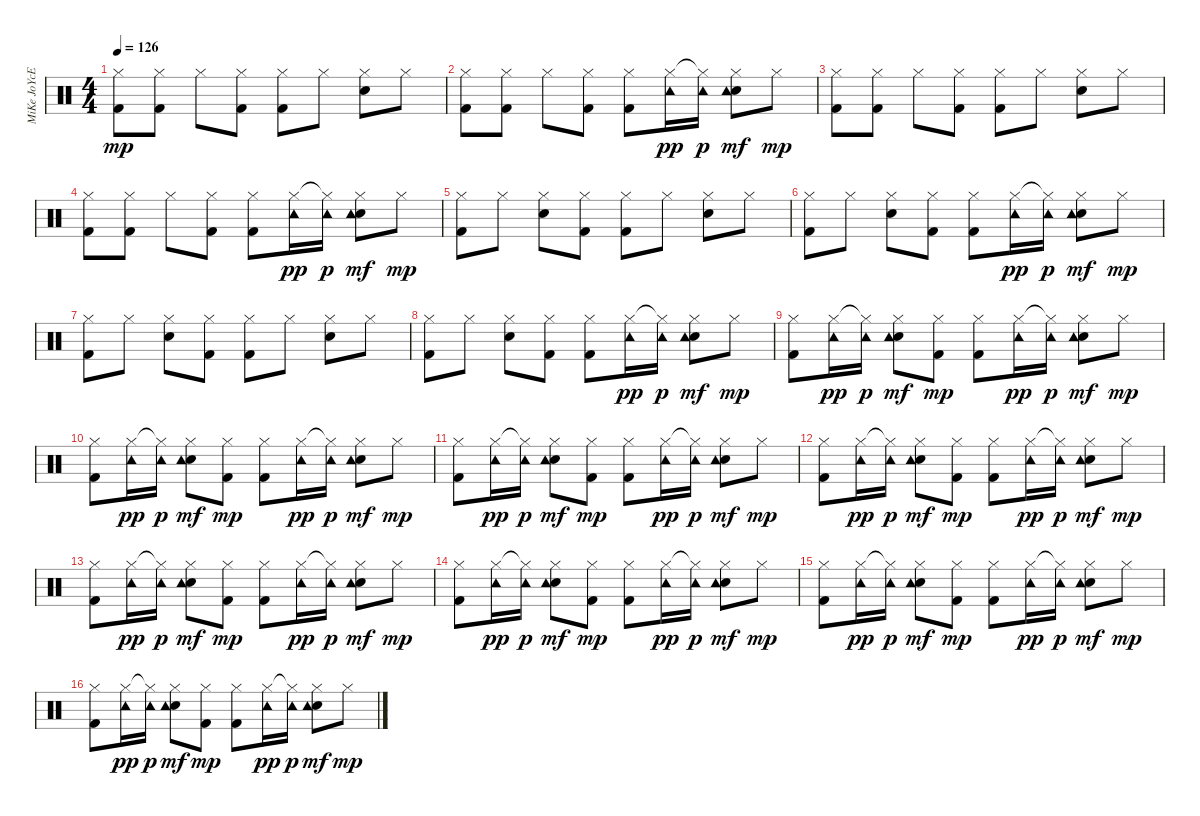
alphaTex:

\track ("MiKe JoYcE" "MiKe JoYcE") {instrument percussion}
\staff {score}
\articulation defaults
\ts (4 4)
\tempo 126
\clef neutral
\ks c
("Hi-Hat (closed)" "Kick (hit) 2").8{dy mp} ("Hi-Hat (closed)" "Kick (hit) 2").8 "Hi-Hat (closed)".8 ("Hi-Hat (closed)" "Kick (hit) 2").8 ("Hi-Hat (closed)" "Kick (hit) 2").8 "Hi-Hat (closed)".8 ("Hi-Hat (closed)" "Electric Snare (hit)").8 "Hi-Hat (closed)".8 |
("Hi-Hat (closed)" "Kick (hit) 2").8 ("Hi-Hat (closed)" "Kick (hit) 2").8 "Hi-Hat (closed)".8 ("Hi-Hat (closed)" "Kick (hit) 2").8 ("Hi-Hat (closed)" "Kick (hit) 2").8 ("Hi-Hat (closed)" "Tambourine (hit)").16{dy pp} ("Hi-Hat (closed)"{t} "Tambourine (hit)").16{dy p} ("Hi-Hat (closed)" "Electric Snare (hit)" "Tambourine (hit)").8{dy mf} "Hi-Hat (closed)".8{dy mp} |
("Hi-Hat (closed)" "Kick (hit) 2").8 ("Hi-Hat (closed)" "Kick (hit) 2").8 "Hi-Hat (closed)".8 ("Hi-Hat (closed)" "Kick (hit) 2").8 ("Hi-Hat (closed)" "Kick (hit) 2").8 "Hi-Hat (closed)".8 ("Hi-Hat (closed)" "Electric Snare (hit)").8 "Hi-Hat (closed)".8 |
("Hi-Hat (closed)" "Kick (hit) 2").8 ("Hi-Hat (closed)" "Kick (hit) 2").8 "Hi-Hat (closed)".8 ("Hi-Hat (closed)" "Kick (hit) 2").8 ("Hi-Hat (closed)" "Kick (hit) 2").8 ("Hi-Hat (closed)" "Tambourine (hit)").16{dy pp} ("Hi-Hat (closed)"{t} "Tambourine (hit)").16{dy p} ("Hi-Hat (closed)" "Electric Snare (hit)" "Tambourine (hit)").8{dy mf} "Hi-Hat (closed)".8{dy mp} |
("Hi-Hat (closed)" "Kick (hit) 2").8 "Hi-Hat (closed)".8 ("Hi-Hat (closed)" "Electric Snare (hit)").8 ("Hi-Hat (closed)" "Kick (hit) 2").8 ("Hi-Hat (closed)" "Kick (hit) 2").8 "Hi-Hat (closed)".8 ("Hi-Hat (closed)" "Electric Snare (hit)").8 "Hi-Hat (closed)".8 |
("Hi-Hat (closed)" "Kick (hit) 2").8 "Hi-Hat (closed)".8 ("Hi-Hat (closed)" "Electric Snare (hit)").8 ("Hi-Hat (closed)" "Kick (hit) 2").8 ("Hi-Hat (closed)" "Kick (hit) 2").8 ("Hi-Hat (closed)" "Tambourine (hit)").16{dy pp} ("Hi-Hat (closed)"{t} "Tambourine (hit)").16{dy p} ("Hi-Hat (closed)" "Electric Snare (hit)" "Tambourine (hit)").8{dy mf} "Hi-Hat (closed)".8{dy mp} |
("Hi-Hat (closed)" "Kick (hit) 2").8 "Hi-Hat (closed)".8 ("Hi-Hat (closed)" "Electric Snare (hit)").8 ("Hi-Hat (closed)" "Kick (hit) 2").8 ("Hi-Hat (closed)" "Kick (hit) 2").8 "Hi-Hat (closed)".8 ("Hi-Hat (closed)" "Electric Snare (hit)").8 "Hi-Hat (closed)".8 |
("Hi-Hat (closed)" "Kick (hit) 2").8 "Hi-Hat (closed)".8 ("Hi-Hat (closed)" "Electric Snare (hit)").8 ("Hi-Hat (closed)" "Kick (hit) 2").8 ("Hi-Hat (closed)" "Kick (hit) 2").8 ("Hi-Hat (closed)" "Tambourine (hit)").16{dy pp} ("Hi-Hat (closed)"{t} "Tambourine (hit)").16{dy p} ("Hi-Hat (closed)" "Electric Snare (hit)" "Tambourine (hit)").8{dy mf} "Hi-Hat (closed)".8{dy mp} |
("Hi-Hat (closed)" "Kick (hit) 2").8{volume 12} ("Hi-Hat (closed)" "Tambourine (hit)").16{dy pp} ("Hi-Hat (closed)"{t} "Tambourine (hit)").16{dy p} ("Hi-Hat (closed)" "Electric Snare (hit)" "Tambourine (hit)").8{dy mf} ("Hi-Hat (closed)" "Kick (hit) 2").8{dy mp} ("Hi-Hat (closed)" "Kick (hit) 2").8 ("Hi-Hat (closed)" "Tambourine (hit)").16{dy pp} ("Hi-Hat (closed)"{t} "Tambourine (hit)").16{dy p} ("Hi-Hat (closed)" "Electric Snare (hit)" "Tambourine (hit)").8{dy mf} "Hi-Hat (closed)".8{dy mp} |
("Hi-Hat (closed)" "Kick (hit) 2").8 ("Hi-Hat (closed)" "Tambourine (hit)").16{dy pp} ("Hi-Hat (closed)"{t} "Tambourine (hit)").16{dy p} ("Hi-Hat (closed)" "Electric Snare (hit)" "Tambourine (hit)").8{dy mf} ("Hi-Hat (closed)" "Kick (hit) 2").8{dy mp} ("Hi-Hat (closed)" "Kick (hit) 2").8 ("Hi-Hat (closed)" "Tambourine (hit)").16{dy pp} ("Hi-Hat (closed)"{t} "Tambourine (hit)").16{dy p} ("Hi-Hat (closed)" "Electric Snare (hit)" "Tambourine (hit)").8{dy mf} "Hi-Hat (closed)".8{dy mp} |
("Hi-Hat (closed)" "Kick (hit) 2").8 ("Hi-Hat (closed)" "Tambourine (hit)").16{dy pp} ("Hi-Hat (closed)"{t} "Tambourine (hit)").16{dy p} ("Hi-Hat (closed)" "Electric Snare (hit)" "Tambourine (hit)").8{dy mf} ("Hi-Hat (closed)" "Kick (hit) 2").8{dy mp} ("Hi-Hat (closed)" "Kick (hit) 2").8 ("Hi-Hat (closed)" "Tambourine (hit)").16{dy pp} ("Hi-Hat (closed)"{t} "Tambourine (hit)").16{dy p} ("Hi-Hat (closed)" "Electric Snare (hit)" "Tambourine (hit)").8{dy mf} "Hi-Hat (closed)".8{dy mp} |
("Hi-Hat (closed)" "Kick (hit) 2").8 ("Hi-Hat (closed)" "Tambourine (hit)").16{dy pp} ("Hi-Hat (closed)"{t} "Tambourine (hit)").16{dy p} ("Hi-Hat (closed)" "Electric Snare (hit)" "Tambourine (hit)").8{dy mf} ("Hi-Hat (closed)" "Kick (hit) 2").8{dy mp} ("Hi-Hat (closed)" "Kick (hit) 2").8 ("Hi-Hat (closed)" "Tambourine (hit)").16{dy pp} ("Hi-Hat (closed)"{t} "Tambourine (hit)").16{dy p} ("Hi-Hat (closed)" "Electric Snare (hit)" "Tambourine (hit)").8{dy mf} "Hi-Hat (closed)".8{dy mp} |
("Hi-Hat (closed)" "Kick (hit) 2").8 ("Hi-Hat (closed)" "Tambourine (hit)").16{dy pp} ("Hi-Hat (closed)"{t} "Tambourine (hit)").16{dy p} ("Hi-Hat (closed)" "Electric Snare (hit)" "Tambourine (hit)").8{dy mf} ("Hi-Hat (closed)" "Kick (hit) 2").8{dy mp} ("Hi-Hat (closed)" "Kick (hit) 2").8 ("Hi-Hat (closed)" "Tambourine (hit)").16{dy pp} ("Hi-Hat (closed)"{t} "Tambourine (hit)").16{dy p} ("Hi-Hat (closed)" "Electric Snare (hit)" "Tambourine (hit)").8{dy mf} "Hi-Hat (closed)".8{dy mp} |
("Hi-Hat (closed)" "Kick (hit) 2").8 ("Hi-Hat (closed)" "Tambourine (hit)").16{dy pp} ("Hi-Hat (closed)"{t} "Tambourine (hit)").16{dy p} ("Hi-Hat (closed)" "Electric Snare (hit)" "Tambourine (hit)").8{dy mf} ("Hi-Hat (closed)" "Kick (hit) 2").8{dy mp} ("Hi-Hat (closed)" "Kick (hit) 2").8 ("Hi-Hat (closed)" "Tambourine (hit)").16{dy pp} ("Hi-Hat (closed)"{t} "Tambourine (hit)").16{dy p} ("Hi-Hat (closed)" "Electric Snare (hit)" "Tambourine (hit)").8{dy mf} "Hi-Hat (closed)".8{dy mp} |
("Hi-Hat (closed)" "Kick (hit) 2").8 ("Hi-Hat (closed)" "Tambourine (hit)").16{dy pp} ("Hi-Hat (closed)"{t} "Tambourine (hit)").16{dy p} ("Hi-Hat (closed)" "Electric Snare (hit)" "Tambourine (hit)").8{dy mf} ("Hi-Hat (closed)" "Kick (hit) 2").8{dy mp} ("Hi-Hat (closed)" "Kick (hit) 2").8 ("Hi-Hat (closed)" "Tambourine (hit)").16{dy pp} ("Hi-Hat (closed)"{t} "Tambourine (hit)").16{dy p} ("Hi-Hat (closed)" "Electric Snare (hit)" "Tambourine (hit)").8{dy mf} "Hi-Hat (closed)".8{dy mp} |
("Hi-Hat (closed)" "Kick (hit) 2").8 ("Hi-Hat (closed)" "Tambourine (hit)").16{dy pp} ("Hi-Hat (closed)"{t} "Tambourine (hit)").16{dy p} ("Hi-Hat (closed)" "Electric Snare (hit)" "Tambourine (hit)").8{dy mf} ("Hi-Hat (closed)" "Kick (hit) 2").8{dy mp} ("Hi-Hat (closed)" "Kick (hit) 2").8 ("Hi-Hat (closed)" "Tambourine (hit)").16{dy pp} ("Hi-Hat (closed)"{t} "Tambourine (hit)").16{dy p} ("Hi-Hat (closed)" "Electric Snare (hit)" "Tambourine (hit)").8{dy mf} "Hi-Hat (closed)".8{dy mp}
